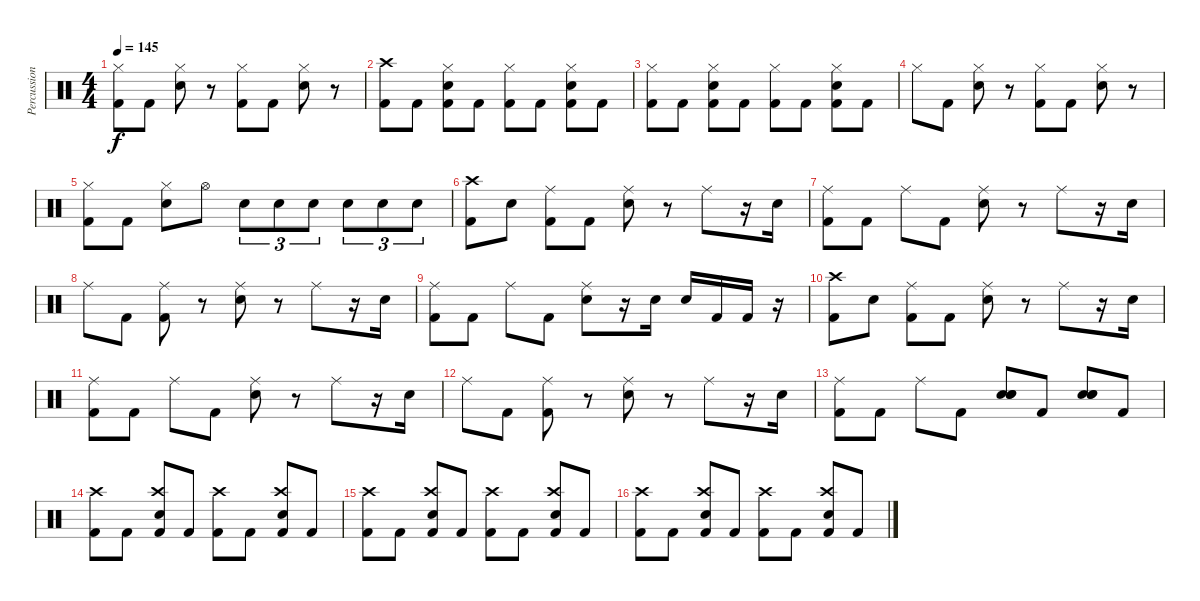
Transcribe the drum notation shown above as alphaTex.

\track ("Percussion" "Percussion") {instrument percussion}
\staff {score}
\articulation defaults
\ts (4 4)
\tempo 145
\clef neutral
\ks c
("Hi-Hat (closed)" "Kick (hit) 2").8{dy f} "Kick (hit) 2".8 ("Hi-Hat (closed)" "Snare (hit) 2").8 r.8 ("Hi-Hat (closed)" "Kick (hit) 2").8 "Kick (hit) 2".8 ("Hi-Hat (closed)" "Snare (hit) 2").8 r.8 |
("Crash high (hit)" "Kick (hit) 2").8 "Kick (hit) 2".8 ("Hi-Hat (closed)" "Snare (hit) 2" "Kick (hit) 2").8 "Kick (hit) 2".8 ("Hi-Hat (closed)" "Kick (hit) 2").8 "Kick (hit) 2".8 ("Hi-Hat (closed)" "Snare (hit) 2" "Kick (hit) 2").8 "Kick (hit) 2".8 |
("Hi-Hat (closed)" "Kick (hit) 2").8 "Kick (hit) 2".8 ("Hi-Hat (closed)" "Snare (hit) 2" "Kick (hit) 2").8 "Kick (hit) 2".8 ("Hi-Hat (closed)" "Kick (hit) 2").8 "Kick (hit) 2".8 ("Hi-Hat (closed)" "Snare (hit) 2" "Kick (hit) 2").8 "Kick (hit) 2".8 |
"Hi-Hat (closed)".8 "Kick (hit) 2".8 ("Hi-Hat (closed)" "Snare (hit) 2").8 r.8 ("Hi-Hat (closed)" "Kick (hit) 2").8 "Kick (hit) 2".8 ("Hi-Hat (closed)" "Snare (hit) 2").8 r.8 |
("Hi-Hat (closed)" "Kick (hit) 2").8 "Kick (hit) 2".8 ("Hi-Hat (closed)" "Snare (hit) 2").8 "Hi-Hat (open)".8 "Snare (hit) 2".8{tu (3 2)} "Snare (hit) 2".8{tu (3 2)} "Snare (hit) 2".8{tu (3 2)} "Snare (hit) 2".8{tu (3 2)} "Snare (hit) 2".8{tu (3 2)} "Snare (hit) 2".8{tu (3 2)} |
("Crash high (hit)" "Kick (hit) 2").8 "Snare (hit) 2".8 ("Ride (middle)" "Kick (hit) 2").8 "Kick (hit) 2".8 ("Ride (middle)" "Snare (hit) 2").8 r.8 "Ride (middle)".8 r.16 "Snare (hit) 2".16 |
("Ride (middle)" "Kick (hit) 2").8 "Kick (hit) 2".8 "Ride (middle)".8 "Kick (hit) 2".8 ("Ride (middle)" "Snare (hit) 2").8 r.8 "Ride (middle)".8 r.16 "Snare (hit) 2".16 |
"Ride (middle)".8 "Kick (hit) 2".8 ("Ride (middle)" "Kick (hit) 2").8 r.8 ("Ride (middle)" "Snare (hit) 2").8 r.8 "Ride (middle)".8 r.16 "Snare (hit) 2".16 |
("Ride (middle)" "Kick (hit) 2").8 "Kick (hit) 2".8 "Ride (middle)".8 "Kick (hit) 2".8 ("Ride (middle)" "Snare (hit) 2").8 r.16 "Snare (hit) 2".16 "Snare (hit) 2".16 "Kick (hit) 2".16 "Kick (hit) 2".16 r.16 |
("Crash high (hit)" "Kick (hit) 2").8 "Snare (hit) 2".8 ("Ride (middle)" "Kick (hit) 2").8 "Kick (hit) 2".8 ("Ride (middle)" "Snare (hit) 2").8 r.8 "Ride (middle)".8 r.16 "Snare (hit) 2".16 |
("Ride (middle)" "Kick (hit) 2").8 "Kick (hit) 2".8 "Ride (middle)".8 "Kick (hit) 2".8 ("Ride (middle)" "Snare (hit) 2").8 r.8 "Ride (middle)".8 r.16 "Snare (hit) 2".16 |
"Ride (middle)".8 "Kick (hit) 2".8 ("Ride (middle)" "Kick (hit) 2").8 r.8 ("Ride (middle)" "Snare (hit) 2").8 r.8 "Ride (middle)".8 r.16 "Snare (hit) 2".16 |
("Ride (middle)" "Kick (hit) 2").8 "Kick (hit) 2".8 "Ride (middle)".8 "Kick (hit) 2".8 ("Snare (hit) 2" "Snare (hit) 2" "Snare (hit) 2").8 "Kick (hit) 2".8 ("Snare (hit) 2" "Snare (hit) 2" "Snare (hit) 2").8 "Kick (hit) 2".8 |
("Crash high (hit)" "Kick (hit) 2").8 "Kick (hit) 2".8 ("Crash high (hit)" "Electric Snare (hit)" "Kick (hit) 2").8 "Kick (hit) 2".8 ("Crash high (hit)" "Kick (hit) 2").8 "Kick (hit) 2".8 ("Crash high (hit)" "Electric Snare (hit)" "Kick (hit) 2").8 "Kick (hit) 2".8 |
("Crash high (hit)" "Kick (hit) 2").8 "Kick (hit) 2".8 ("Crash high (hit)" "Electric Snare (hit)" "Kick (hit) 2").8 "Kick (hit) 2".8 ("Crash high (hit)" "Kick (hit) 2").8 "Kick (hit) 2".8 ("Crash high (hit)" "Electric Snare (hit)" "Kick (hit) 2").8 "Kick (hit) 2".8 |
("Crash high (hit)" "Kick (hit) 2").8 "Kick (hit) 2".8 ("Crash high (hit)" "Electric Snare (hit)" "Kick (hit) 2").8 "Kick (hit) 2".8 ("Crash high (hit)" "Kick (hit) 2").8 "Kick (hit) 2".8 ("Crash high (hit)" "Electric Snare (hit)" "Kick (hit) 2").8 "Kick (hit) 2".8
